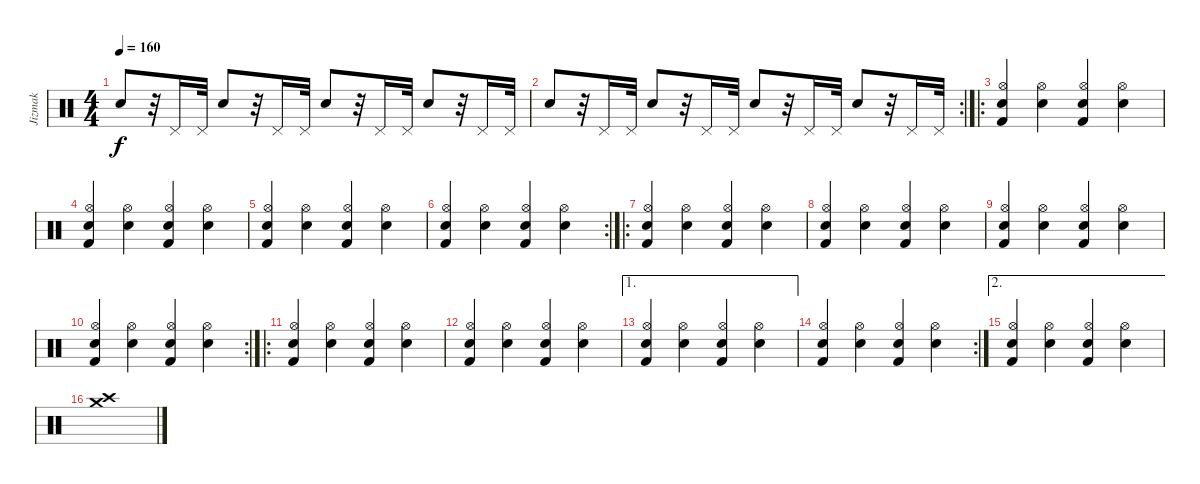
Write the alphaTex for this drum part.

\track ("Jizmak" "Jizmak") {instrument percussion}
\staff {score}
\articulation defaults
\ts (4 4)
\tempo 160
\clef neutral
\ks c "Snare (hit) 2".8{dy f}
r.32 "Pedal Hi-Hat (hit)".16 "Pedal Hi-Hat (hit)".32 "Snare (hit) 2".8 r.32 "Pedal Hi-Hat (hit)".16 "Pedal Hi-Hat (hit)".32 "Snare (hit) 2".8 r.32 "Pedal Hi-Hat (hit)".16 "Pedal Hi-Hat (hit)".32 "Snare (hit) 2".8 r.32 "Pedal Hi-Hat (hit)".16 "Pedal Hi-Hat (hit)".32 |
\rc 2 "Snare (hit) 2".8
r.32 "Pedal Hi-Hat (hit)".16 "Pedal Hi-Hat (hit)".32 "Snare (hit) 2".8 r.32 "Pedal Hi-Hat (hit)".16 "Pedal Hi-Hat (hit)".32 "Snare (hit) 2".8 r.32 "Pedal Hi-Hat (hit)".16 "Pedal Hi-Hat (hit)".32 "Snare (hit) 2".8 r.32 "Pedal Hi-Hat (hit)".16 "Pedal Hi-Hat (hit)".32 |
\ro
("Hi-Hat (open)" "Snare (hit) 2" "Kick (hit) 2").4 ("Hi-Hat (open)" "Snare (hit) 2").4 ("Hi-Hat (open)" "Snare (hit) 2" "Kick (hit) 2").4 ("Hi-Hat (open)" "Snare (hit) 2").4 |
("Hi-Hat (open)" "Snare (hit) 2" "Kick (hit) 2").4 ("Hi-Hat (open)" "Snare (hit) 2").4 ("Hi-Hat (open)" "Snare (hit) 2" "Kick (hit) 2").4 ("Hi-Hat (open)" "Snare (hit) 2").4 |
("Hi-Hat (open)" "Snare (hit) 2" "Kick (hit) 2").4 ("Hi-Hat (open)" "Snare (hit) 2").4 ("Hi-Hat (open)" "Snare (hit) 2" "Kick (hit) 2").4 ("Hi-Hat (open)" "Snare (hit) 2").4 |
\rc 2
("Hi-Hat (open)" "Snare (hit) 2" "Kick (hit) 2").4 ("Hi-Hat (open)" "Snare (hit) 2").4 ("Hi-Hat (open)" "Snare (hit) 2" "Kick (hit) 2").4 ("Hi-Hat (open)" "Snare (hit) 2").4 |
\ro
("Hi-Hat (open)" "Snare (hit) 2" "Kick (hit) 2").4 ("Hi-Hat (open)" "Snare (hit) 2").4 ("Hi-Hat (open)" "Snare (hit) 2" "Kick (hit) 2").4 ("Hi-Hat (open)" "Snare (hit) 2").4 |
("Hi-Hat (open)" "Snare (hit) 2" "Kick (hit) 2").4 ("Hi-Hat (open)" "Snare (hit) 2").4 ("Hi-Hat (open)" "Snare (hit) 2" "Kick (hit) 2").4 ("Hi-Hat (open)" "Snare (hit) 2").4 |
("Hi-Hat (open)" "Snare (hit) 2" "Kick (hit) 2").4 ("Hi-Hat (open)" "Snare (hit) 2").4 ("Hi-Hat (open)" "Snare (hit) 2" "Kick (hit) 2").4 ("Hi-Hat (open)" "Snare (hit) 2").4 |
\rc 2
("Hi-Hat (open)" "Snare (hit) 2" "Kick (hit) 2").4 ("Hi-Hat (open)" "Snare (hit) 2").4 ("Hi-Hat (open)" "Snare (hit) 2" "Kick (hit) 2").4 ("Hi-Hat (open)" "Snare (hit) 2").4 |
\ro
("Hi-Hat (open)" "Snare (hit) 2" "Kick (hit) 2").4 ("Hi-Hat (open)" "Snare (hit) 2").4 ("Hi-Hat (open)" "Snare (hit) 2" "Kick (hit) 2").4 ("Hi-Hat (open)" "Snare (hit) 2").4 |
("Hi-Hat (open)" "Snare (hit) 2" "Kick (hit) 2").4 ("Hi-Hat (open)" "Snare (hit) 2").4 ("Hi-Hat (open)" "Snare (hit) 2" "Kick (hit) 2").4 ("Hi-Hat (open)" "Snare (hit) 2").4 |
\ae 1
("Hi-Hat (open)" "Snare (hit) 2" "Kick (hit) 2").4 ("Hi-Hat (open)" "Snare (hit) 2").4 ("Hi-Hat (open)" "Snare (hit) 2" "Kick (hit) 2").4 ("Hi-Hat (open)" "Snare (hit) 2").4 |
\rc 2
("Hi-Hat (open)" "Snare (hit) 2" "Kick (hit) 2").4 ("Hi-Hat (open)" "Snare (hit) 2").4 ("Hi-Hat (open)" "Snare (hit) 2" "Kick (hit) 2").4 ("Hi-Hat (open)" "Snare (hit) 2").4 |
\ae 2
("Hi-Hat (open)" "Snare (hit) 2" "Kick (hit) 2").4 ("Hi-Hat (open)" "Snare (hit) 2").4 ("Hi-Hat (open)" "Snare (hit) 2" "Kick (hit) 2").4 ("Hi-Hat (open)" "Snare (hit) 2").4 |
("Crash high (hit)" "Crash medium (hit)").1
